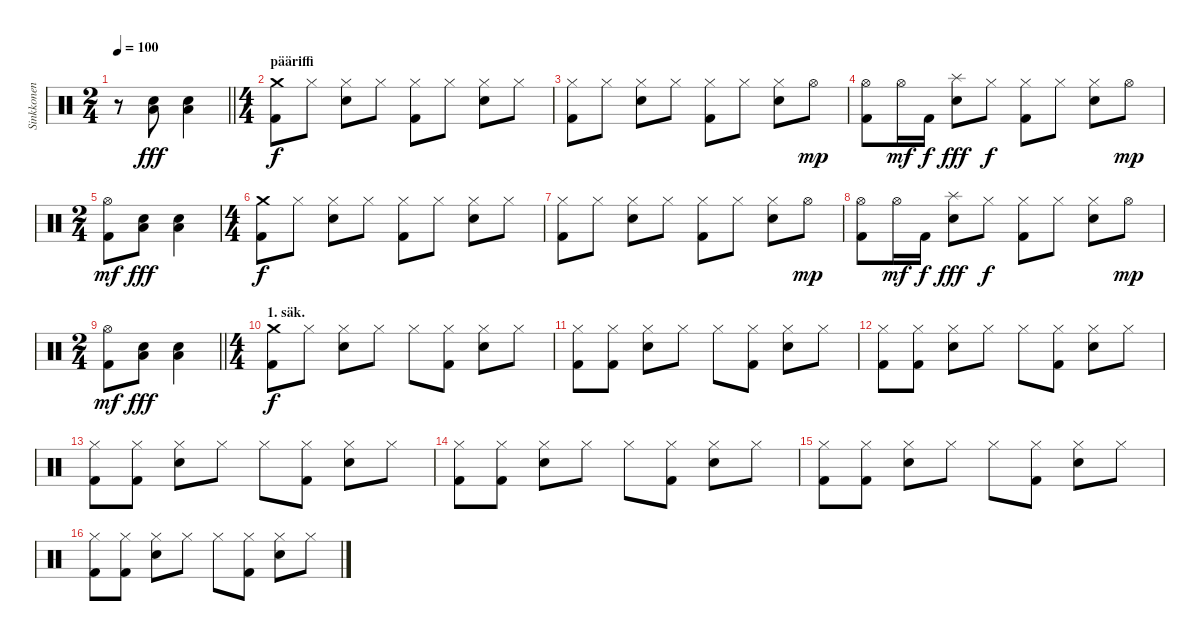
\track ("Sinkkonen" "Sinkkonen") {instrument percussion}
\staff {score}
\articulation defaults
\ts (2 4)
\tempo 100
\clef neutral
\barLineRight lightlight
\ks c
r.8{dy fff} ("Low Floor Tom (hit)" "Electric Snare (hit)").8 ("Low Floor Tom (hit)" "Electric Snare (hit)").4 |
\ts (4 4)
\section ("" "pääriffi")
("Kick (hit) 2" "Crash medium (hit)").8{dy f} "Hi-Hat (closed)".8 ("Hi-Hat (closed)" "Electric Snare (hit)").8 "Hi-Hat (closed)".8 ("Kick (hit) 2" "Hi-Hat (closed)").8 "Hi-Hat (closed)".8 ("Hi-Hat (closed)" "Electric Snare (hit)").8 "Hi-Hat (closed)".8 |
("Kick (hit) 2" "Hi-Hat (closed)").8 "Hi-Hat (closed)".8 ("Hi-Hat (closed)" "Electric Snare (hit)").8 "Hi-Hat (closed)".8 ("Kick (hit) 2" "Hi-Hat (closed)").8 "Hi-Hat (closed)".8 ("Hi-Hat (closed)" "Electric Snare (hit)").8 "Hi-Hat (open)".8{dy mp} |
("Kick (hit) 2" "Hi-Hat (open)").8 "Hi-Hat (open)".16{dy mf} "Kick (hit) 2".16{dy f} ("Splash (hit)" "Electric Snare (hit)").8{dy fff} "Hi-Hat (closed)".8{dy f} ("Kick (hit) 2" "Hi-Hat (closed)").8 "Hi-Hat (closed)".8 ("Hi-Hat (closed)" "Electric Snare (hit)").8 "Hi-Hat (open)".8{dy mp} |
\ts (2 4)
("Kick (hit) 2" "Hi-Hat (open)").8{dy mf} ("Low Floor Tom (hit)" "Electric Snare (hit)").8{dy fff} ("Low Floor Tom (hit)" "Electric Snare (hit)").4 |
\ts (4 4)
("Kick (hit) 2" "Crash medium (hit)").8{dy f} "Hi-Hat (closed)".8 ("Hi-Hat (closed)" "Electric Snare (hit)").8 "Hi-Hat (closed)".8 ("Kick (hit) 2" "Hi-Hat (closed)").8 "Hi-Hat (closed)".8 ("Hi-Hat (closed)" "Electric Snare (hit)").8 "Hi-Hat (closed)".8 |
("Kick (hit) 2" "Hi-Hat (closed)").8 "Hi-Hat (closed)".8 ("Hi-Hat (closed)" "Electric Snare (hit)").8 "Hi-Hat (closed)".8 ("Kick (hit) 2" "Hi-Hat (closed)").8 "Hi-Hat (closed)".8 ("Hi-Hat (closed)" "Electric Snare (hit)").8 "Hi-Hat (open)".8{dy mp} |
("Kick (hit) 2" "Hi-Hat (open)").8 "Hi-Hat (open)".16{dy mf} "Kick (hit) 2".16{dy f} ("Splash (hit)" "Electric Snare (hit)").8{dy fff} "Hi-Hat (closed)".8{dy f} ("Kick (hit) 2" "Hi-Hat (closed)").8 "Hi-Hat (closed)".8 ("Hi-Hat (closed)" "Electric Snare (hit)").8 "Hi-Hat (open)".8{dy mp} |
\ts (2 4)
\barLineRight lightlight
("Kick (hit) 2" "Hi-Hat (open)").8{dy mf} ("Low Floor Tom (hit)" "Electric Snare (hit)").8{dy fff} ("Low Floor Tom (hit)" "Electric Snare (hit)").4 |
\ts (4 4)
\section ("" "1. säk.")
("Kick (hit) 2" "Crash medium (hit)").8{dy f} "Hi-Hat (closed)".8 ("Hi-Hat (closed)" "Electric Snare (hit)").8 "Hi-Hat (closed)".8 "Hi-Hat (closed)".8 ("Kick (hit) 2" "Hi-Hat (closed)").8 ("Hi-Hat (closed)" "Electric Snare (hit)").8 "Hi-Hat (closed)".8 |
("Kick (hit) 2" "Hi-Hat (closed)").8 ("Kick (hit) 2" "Hi-Hat (closed)").8 ("Hi-Hat (closed)" "Electric Snare (hit)").8 "Hi-Hat (closed)".8 "Hi-Hat (closed)".8 ("Kick (hit) 2" "Hi-Hat (closed)").8 ("Hi-Hat (closed)" "Electric Snare (hit)").8 "Hi-Hat (closed)".8 |
("Kick (hit) 2" "Hi-Hat (closed)").8 ("Kick (hit) 2" "Hi-Hat (closed)").8 ("Hi-Hat (closed)" "Electric Snare (hit)").8 "Hi-Hat (closed)".8 "Hi-Hat (closed)".8 ("Kick (hit) 2" "Hi-Hat (closed)").8 ("Hi-Hat (closed)" "Electric Snare (hit)").8 "Hi-Hat (closed)".8 |
("Kick (hit) 2" "Hi-Hat (closed)").8 ("Kick (hit) 2" "Hi-Hat (closed)").8 ("Hi-Hat (closed)" "Electric Snare (hit)").8 "Hi-Hat (closed)".8 "Hi-Hat (closed)".8 ("Kick (hit) 2" "Hi-Hat (closed)").8 ("Hi-Hat (closed)" "Electric Snare (hit)").8 "Hi-Hat (closed)".8 |
("Kick (hit) 2" "Hi-Hat (closed)").8 ("Kick (hit) 2" "Hi-Hat (closed)").8 ("Hi-Hat (closed)" "Electric Snare (hit)").8 "Hi-Hat (closed)".8 "Hi-Hat (closed)".8 ("Kick (hit) 2" "Hi-Hat (closed)").8 ("Hi-Hat (closed)" "Electric Snare (hit)").8 "Hi-Hat (closed)".8 |
("Kick (hit) 2" "Hi-Hat (closed)").8 ("Kick (hit) 2" "Hi-Hat (closed)").8 ("Hi-Hat (closed)" "Electric Snare (hit)").8 "Hi-Hat (closed)".8 "Hi-Hat (closed)".8 ("Kick (hit) 2" "Hi-Hat (closed)").8 ("Hi-Hat (closed)" "Electric Snare (hit)").8 "Hi-Hat (closed)".8 |
("Kick (hit) 2" "Hi-Hat (closed)").8 ("Kick (hit) 2" "Hi-Hat (closed)").8 ("Hi-Hat (closed)" "Electric Snare (hit)").8 "Hi-Hat (closed)".8 "Hi-Hat (closed)".8 ("Kick (hit) 2" "Hi-Hat (closed)").8 ("Hi-Hat (closed)" "Electric Snare (hit)").8 "Hi-Hat (closed)".8
